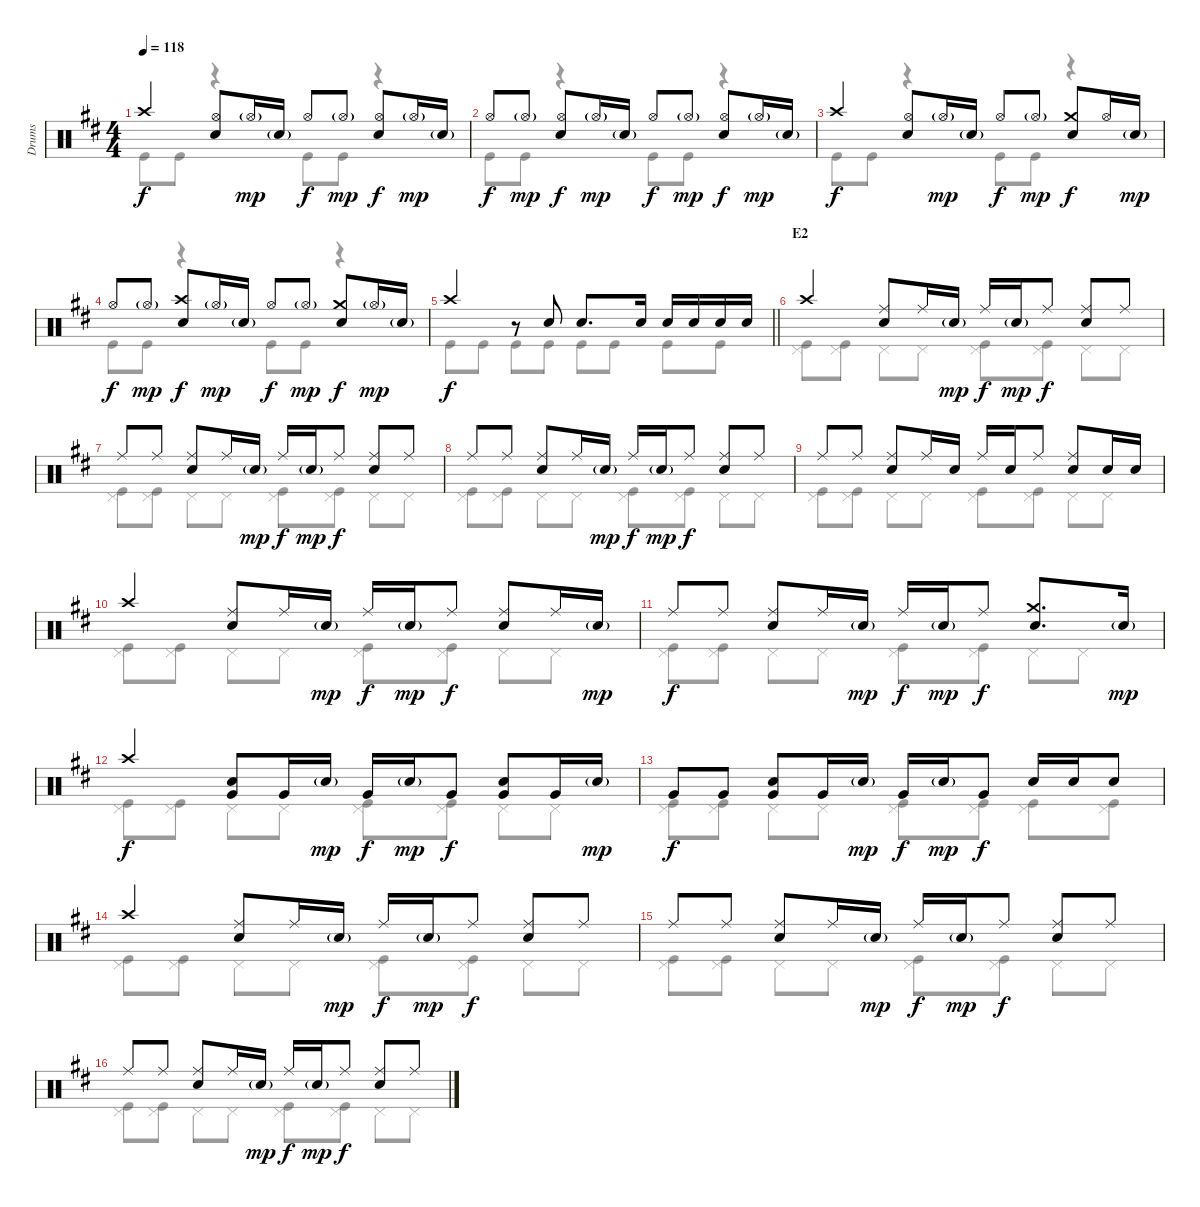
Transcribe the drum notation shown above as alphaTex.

\track ("Drums" "Drums") {instrument percussion}
\staff {score}
\articulation defaults
\voice
\ts (4 4)
\tempo 118
\clef neutral
\ks d "Crash high (hit)".4{dy f}
("Hi-Hat (open)" "Snare (hit) 2").8 "Hi-Hat (open)"{g}.16{dy mp} "Snare (hit) 2"{g}.16 "Hi-Hat (open)".8{dy f} "Hi-Hat (open)"{g}.8{dy mp} ("Hi-Hat (open)" "Snare (hit) 2").8{dy f} "Hi-Hat (open)"{g}.16{dy mp} "Snare (hit) 2"{g}.16 |
"Hi-Hat (open)".8{dy f} "Hi-Hat (open)"{g}.8{dy mp} ("Hi-Hat (open)" "Snare (hit) 2").8{dy f} "Hi-Hat (open)"{g}.16{dy mp} "Snare (hit) 2"{g}.16 "Hi-Hat (open)".8{dy f} "Hi-Hat (open)"{g}.8{dy mp} ("Hi-Hat (open)" "Snare (hit) 2").8{dy f} "Hi-Hat (open)"{g}.16{dy mp} "Snare (hit) 2"{g}.16 |
"Crash high (hit)".4{dy f} ("Hi-Hat (open)" "Snare (hit) 2").8 "Hi-Hat (open)"{g}.16{dy mp} "Snare (hit) 2"{g}.16 "Hi-Hat (open)".8{dy f} "Hi-Hat (open)"{g}.8{dy mp} ("Crash medium (hit)" "Snare (hit) 2").8{dy f} "Hi-Hat (open)".16 "Snare (hit) 2"{g}.16{dy mp} |
"Hi-Hat (open)".8{dy f} "Hi-Hat (open)"{g}.8{dy mp} ("Crash high (hit)" "Snare (hit) 2").8{dy f} "Hi-Hat (open)"{g}.16{dy mp} "Snare (hit) 2"{g}.16 "Hi-Hat (open)".8{dy f} "Hi-Hat (open)"{g}.8{dy mp} ("Crash medium (hit)" "Snare (hit) 2").8{dy f} "Hi-Hat (open)"{g}.16{dy mp} "Snare (hit) 2"{g}.16 |
\barLineRight lightlight "Crash high (hit)".4{dy f}
r.8 "Snare (hit) 2".8 "Snare (hit) 2".8{d} "Snare (hit) 2".16 "Snare (hit) 2".16 "Snare (hit) 2".16 "Snare (hit) 2".16 "Snare (hit) 2".16 |
\section ("" "E2")
"Crash high (hit)".4 ("Ride (middle)" "Snare (hit) 2").8 "Ride (middle)".16 "Snare (hit) 2"{g}.16{dy mp} "Ride (middle)".16{dy f} "Snare (hit) 2"{g}.16{dy mp} "Ride (middle)".8{dy f} ("Ride (middle)" "Snare (hit) 2").8 "Ride (middle)".8 |
"Ride (middle)".8 "Ride (middle)".8 ("Ride (middle)" "Snare (hit) 2").8 "Ride (middle)".16 "Snare (hit) 2"{g}.16{dy mp} "Ride (middle)".16{dy f} "Snare (hit) 2"{g}.16{dy mp} "Ride (middle)".8{dy f} ("Ride (middle)" "Snare (hit) 2").8 "Ride (middle)".8 |
"Ride (middle)".8 "Ride (middle)".8 ("Ride (middle)" "Snare (hit) 2").8 "Ride (middle)".16 "Snare (hit) 2"{g}.16{dy mp} "Ride (middle)".16{dy f} "Snare (hit) 2"{g}.16{dy mp} "Ride (middle)".8{dy f} ("Ride (middle)" "Snare (hit) 2").8 "Ride (middle)".8 |
"Ride (middle)".8 "Ride (middle)".8 ("Ride (middle)" "Snare (hit) 2").8 "Ride (middle)".16 "Snare (hit) 2".16 "Ride (middle)".16 "Snare (hit) 2".16 "Ride (middle)".8 ("Ride (middle)" "Snare (hit) 2").8 "Snare (hit) 2".16 "Snare (hit) 2".16 |
"Crash high (hit)".4 ("Ride (middle)" "Snare (hit) 2").8 "Ride (middle)".16 "Snare (hit) 2"{g}.16{dy mp} "Ride (middle)".16{dy f} "Snare (hit) 2"{g}.16{dy mp} "Ride (middle)".8{dy f} ("Ride (middle)" "Snare (hit) 2").8 "Ride (middle)".16 "Snare (hit) 2"{g}.16{dy mp} |
"Ride (middle)".8{dy f} "Ride (middle)".8 ("Ride (middle)" "Snare (hit) 2").8 "Ride (middle)".16 "Snare (hit) 2"{g}.16{dy mp} "Ride (middle)".16{dy f} "Snare (hit) 2"{g}.16{dy mp} "Ride (middle)".8{dy f} ("Crash medium (hit)" "Snare (hit) 2").8{d} "Snare (hit) 2"{g}.16{dy mp} |
"Crash high (hit)".4{dy f} ("Very Low Tom (hit)" "Snare (hit) 2").8 "Very Low Tom (hit)".16 "Snare (hit) 2"{g}.16{dy mp} "Very Low Tom (hit)".16{dy f} "Snare (hit) 2"{g}.16{dy mp} "Very Low Tom (hit)".8{dy f} ("Very Low Tom (hit)" "Snare (hit) 2").8 "Very Low Tom (hit)".16 "Snare (hit) 2"{g}.16{dy mp} |
"Very Low Tom (hit)".8{dy f} "Very Low Tom (hit)".8 ("Very Low Tom (hit)" "Snare (hit) 2").8 "Very Low Tom (hit)".16 "Snare (hit) 2"{g}.16{dy mp} "Very Low Tom (hit)".16{dy f} "Snare (hit) 2"{g}.16{dy mp} "Very Low Tom (hit)".8{dy f} "Snare (hit) 2".16 "Snare (hit) 2".16 "Snare (hit) 2".8 |
"Crash high (hit)".4 ("Ride (middle)" "Snare (hit) 2").8 "Ride (middle)".16 "Snare (hit) 2"{g}.16{dy mp} "Ride (middle)".16{dy f} "Snare (hit) 2"{g}.16{dy mp} "Ride (middle)".8{dy f} ("Ride (middle)" "Snare (hit) 2").8 "Ride (middle)".8 |
"Ride (middle)".8 "Ride (middle)".8 ("Ride (middle)" "Snare (hit) 2").8 "Ride (middle)".16 "Snare (hit) 2"{g}.16{dy mp} "Ride (middle)".16{dy f} "Snare (hit) 2"{g}.16{dy mp} "Ride (middle)".8{dy f} ("Ride (middle)" "Snare (hit) 2").8 "Ride (middle)".8 |
"Ride (middle)".8 "Ride (middle)".8 ("Ride (middle)" "Snare (hit) 2").8 "Ride (middle)".16 "Snare (hit) 2"{g}.16{dy mp} "Ride (middle)".16{dy f} "Snare (hit) 2"{g}.16{dy mp} "Ride (middle)".8{dy f} ("Ride (middle)" "Snare (hit) 2").8 "Ride (middle)".8
\voice
\clef neutral
\ottava regular
\simile none
\ks d "Kick (hit)".8{dy f} "Kick (hit)".8
r.4 "Kick (hit)".8 "Kick (hit)".8 r.4 |
"Kick (hit)".8 "Kick (hit)".8 r.4 "Kick (hit)".8 "Kick (hit)".8 r.4 |
"Kick (hit)".8 "Kick (hit)".8 r.4 "Kick (hit)".8 "Kick (hit)".8 r.4 |
"Kick (hit)".8 "Kick (hit)".8 r.4 "Kick (hit)".8 "Kick (hit)".8 r.4 |
\barLineRight lightlight "Kick (hit)".8 "Kick (hit)".8 "Kick (hit)".8 "Kick (hit)".8 "Kick (hit)".8 "Kick (hit)".8 "Kick (hit)".8 "Kick (hit)".8
|
("Pedal Hi-Hat (hit)" "Kick (hit)").8 ("Pedal Hi-Hat (hit)" "Kick (hit)").8 "Pedal Hi-Hat (hit)".8 "Pedal Hi-Hat (hit)".8 ("Pedal Hi-Hat (hit)" "Kick (hit)").8 ("Pedal Hi-Hat (hit)" "Kick (hit)").8 "Pedal Hi-Hat (hit)".8 "Pedal Hi-Hat (hit)".8 |
("Pedal Hi-Hat (hit)" "Kick (hit)").8 ("Pedal Hi-Hat (hit)" "Kick (hit)").8 "Pedal Hi-Hat (hit)".8 "Pedal Hi-Hat (hit)".8 ("Pedal Hi-Hat (hit)" "Kick (hit)").8 ("Pedal Hi-Hat (hit)" "Kick (hit)").8 "Pedal Hi-Hat (hit)".8 "Pedal Hi-Hat (hit)".8 |
("Pedal Hi-Hat (hit)" "Kick (hit)").8 ("Pedal Hi-Hat (hit)" "Kick (hit)").8 "Pedal Hi-Hat (hit)".8 "Pedal Hi-Hat (hit)".8 ("Pedal Hi-Hat (hit)" "Kick (hit)").8 ("Pedal Hi-Hat (hit)" "Kick (hit)").8 "Pedal Hi-Hat (hit)".8 "Pedal Hi-Hat (hit)".8 |
("Pedal Hi-Hat (hit)" "Kick (hit)").8 ("Pedal Hi-Hat (hit)" "Kick (hit)").8 "Pedal Hi-Hat (hit)".8 "Pedal Hi-Hat (hit)".8 ("Pedal Hi-Hat (hit)" "Kick (hit)").8 ("Pedal Hi-Hat (hit)" "Kick (hit)").8 "Pedal Hi-Hat (hit)".8 "Pedal Hi-Hat (hit)".8 |
("Pedal Hi-Hat (hit)" "Kick (hit)").8 ("Pedal Hi-Hat (hit)" "Kick (hit)").8 "Pedal Hi-Hat (hit)".8 "Pedal Hi-Hat (hit)".8 ("Pedal Hi-Hat (hit)" "Kick (hit)").8 ("Pedal Hi-Hat (hit)" "Kick (hit)").8 "Pedal Hi-Hat (hit)".8 "Pedal Hi-Hat (hit)".8 |
("Pedal Hi-Hat (hit)" "Kick (hit)").8 ("Pedal Hi-Hat (hit)" "Kick (hit)").8 "Pedal Hi-Hat (hit)".8 "Pedal Hi-Hat (hit)".8 ("Pedal Hi-Hat (hit)" "Kick (hit)").8 ("Pedal Hi-Hat (hit)" "Kick (hit)").8 "Pedal Hi-Hat (hit)".8 "Pedal Hi-Hat (hit)".8 |
("Pedal Hi-Hat (hit)" "Kick (hit)").8 ("Pedal Hi-Hat (hit)" "Kick (hit)").8 "Pedal Hi-Hat (hit)".8 "Pedal Hi-Hat (hit)".8 ("Pedal Hi-Hat (hit)" "Kick (hit)").8 ("Pedal Hi-Hat (hit)" "Kick (hit)").8 "Pedal Hi-Hat (hit)".8 "Pedal Hi-Hat (hit)".8 |
("Pedal Hi-Hat (hit)" "Kick (hit)").8 ("Pedal Hi-Hat (hit)" "Kick (hit)").8 "Pedal Hi-Hat (hit)".8 "Pedal Hi-Hat (hit)".8 ("Pedal Hi-Hat (hit)" "Kick (hit)").8 ("Pedal Hi-Hat (hit)" "Kick (hit)").8 ("Pedal Hi-Hat (hit)" "Kick (hit)").8 ("Pedal Hi-Hat (hit)" "Kick (hit)").8 |
("Pedal Hi-Hat (hit)" "Kick (hit)").8 ("Pedal Hi-Hat (hit)" "Kick (hit)").8 "Pedal Hi-Hat (hit)".8 "Pedal Hi-Hat (hit)".8 ("Pedal Hi-Hat (hit)" "Kick (hit)").8 ("Pedal Hi-Hat (hit)" "Kick (hit)").8 "Pedal Hi-Hat (hit)".8 "Pedal Hi-Hat (hit)".8 |
("Pedal Hi-Hat (hit)" "Kick (hit)").8 ("Pedal Hi-Hat (hit)" "Kick (hit)").8 "Pedal Hi-Hat (hit)".8 "Pedal Hi-Hat (hit)".8 ("Pedal Hi-Hat (hit)" "Kick (hit)").8 ("Pedal Hi-Hat (hit)" "Kick (hit)").8 "Pedal Hi-Hat (hit)".8 "Pedal Hi-Hat (hit)".8 |
("Pedal Hi-Hat (hit)" "Kick (hit)").8 ("Pedal Hi-Hat (hit)" "Kick (hit)").8 "Pedal Hi-Hat (hit)".8 "Pedal Hi-Hat (hit)".8 ("Pedal Hi-Hat (hit)" "Kick (hit)").8 ("Pedal Hi-Hat (hit)" "Kick (hit)").8 "Pedal Hi-Hat (hit)".8 "Pedal Hi-Hat (hit)".8
